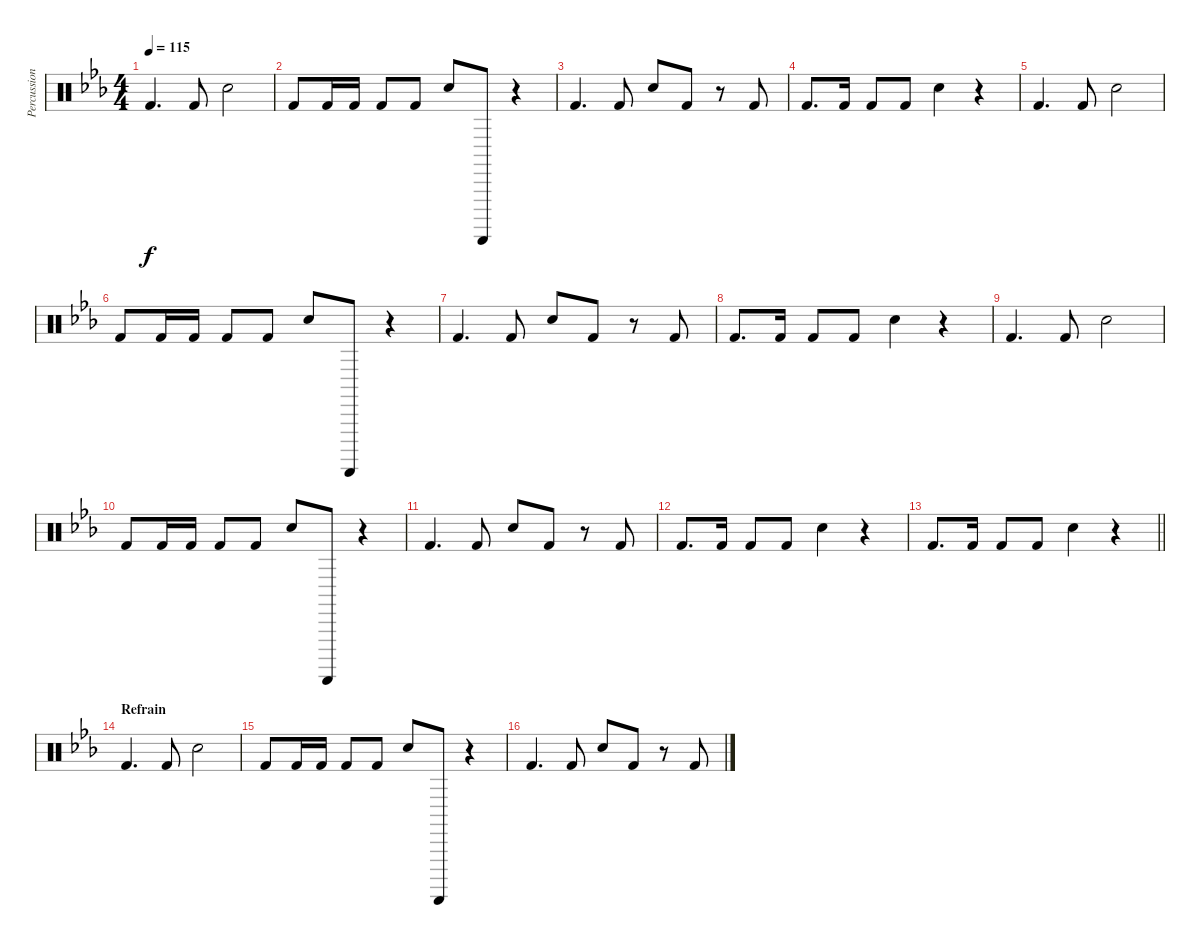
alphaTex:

\track ("Percussions" "Percussion") {instrument percussion}
\staff {score}
\articulation defaults
\ts (4 4)
\tempo 115
\clef neutral
\ks eb "Kick (hit) 2".4{d dy f} "Kick (hit) 2".8 "Hand Clap (hit)".2
|
"Kick (hit) 2".8 "Kick (hit) 2".16 "Kick (hit) 2".16 "Kick (hit) 2".8 "Kick (hit) 2".8 "Hand Clap (hit)".8 "Guiro (scrap-return)".8 r.4 |
"Kick (hit) 2".4{d} "Kick (hit) 2".8 "Hand Clap (hit)".8 "Kick (hit) 2".8 r.8 "Kick (hit) 2".8 |
"Kick (hit) 2".8{d} "Kick (hit) 2".16 "Kick (hit) 2".8 "Kick (hit) 2".8 "Hand Clap (hit)".4 r.4 |
"Kick (hit) 2".4{d} "Kick (hit) 2".8 "Hand Clap (hit)".2 |
"Kick (hit) 2".8 "Kick (hit) 2".16 "Kick (hit) 2".16 "Kick (hit) 2".8 "Kick (hit) 2".8 "Hand Clap (hit)".8 "Guiro (scrap-return)".8 r.4 |
"Kick (hit) 2".4{d} "Kick (hit) 2".8 "Hand Clap (hit)".8 "Kick (hit) 2".8 r.8 "Kick (hit) 2".8 |
"Kick (hit) 2".8{d} "Kick (hit) 2".16 "Kick (hit) 2".8 "Kick (hit) 2".8 "Hand Clap (hit)".4 r.4 |
"Kick (hit) 2".4{d} "Kick (hit) 2".8 "Hand Clap (hit)".2 |
"Kick (hit) 2".8 "Kick (hit) 2".16 "Kick (hit) 2".16 "Kick (hit) 2".8 "Kick (hit) 2".8 "Hand Clap (hit)".8 "Guiro (scrap-return)".8 r.4 |
"Kick (hit) 2".4{d} "Kick (hit) 2".8 "Hand Clap (hit)".8 "Kick (hit) 2".8 r.8 "Kick (hit) 2".8 |
"Kick (hit) 2".8{d} "Kick (hit) 2".16 "Kick (hit) 2".8 "Kick (hit) 2".8 "Hand Clap (hit)".4 r.4 |
\barLineRight lightlight "Kick (hit) 2".8{d} "Kick (hit) 2".16 "Kick (hit) 2".8 "Kick (hit) 2".8 "Hand Clap (hit)".4
r.4 |
\section ("" "Refrain")
"Kick (hit) 2".4{d} "Kick (hit) 2".8 "Hand Clap (hit)".2 |
"Kick (hit) 2".8 "Kick (hit) 2".16 "Kick (hit) 2".16 "Kick (hit) 2".8 "Kick (hit) 2".8 "Hand Clap (hit)".8 "Guiro (scrap-return)".8 r.4 |
"Kick (hit) 2".4{d} "Kick (hit) 2".8 "Hand Clap (hit)".8 "Kick (hit) 2".8 r.8 "Kick (hit) 2".8
